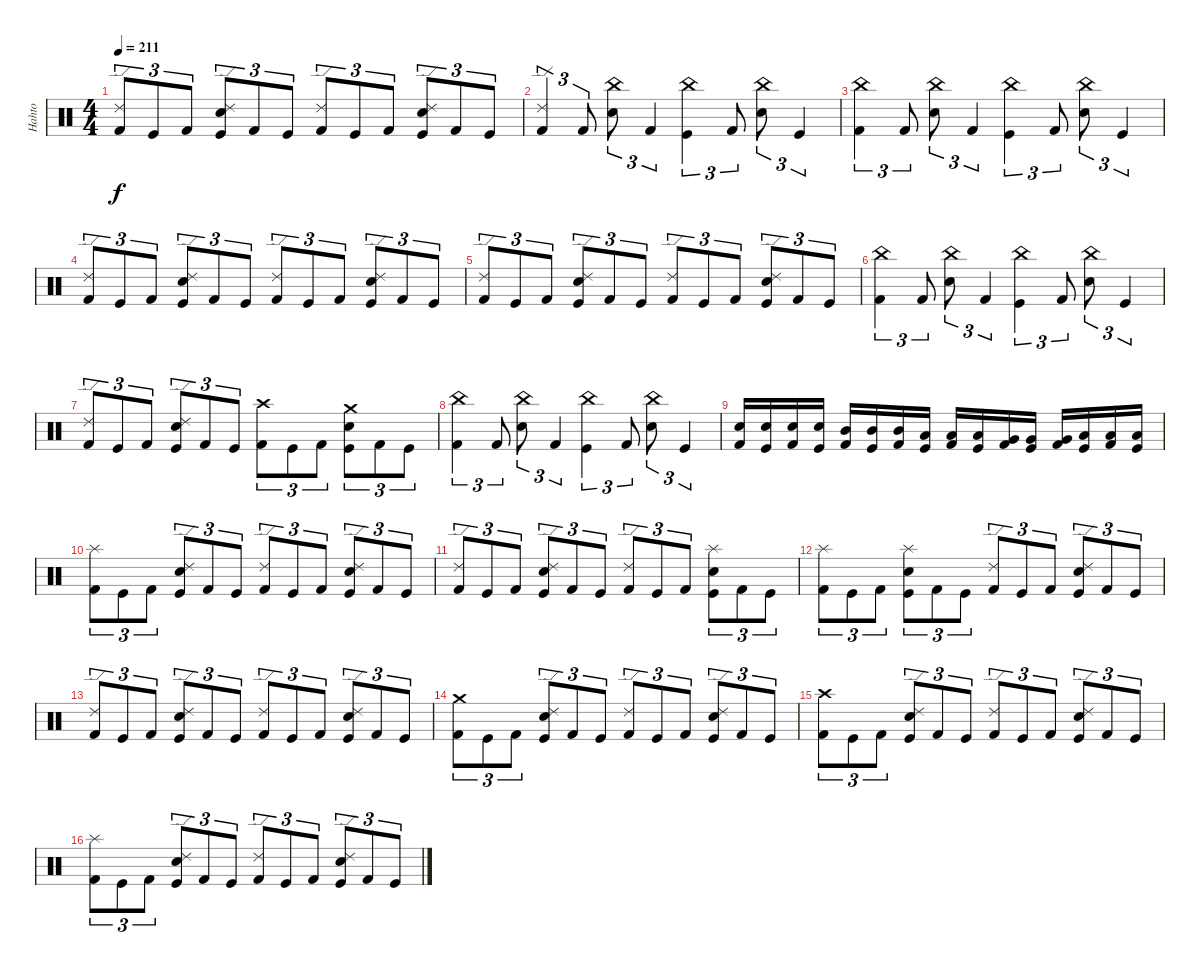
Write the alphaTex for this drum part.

\track ("Hahto" "Hahto") {instrument percussion}
\staff {score}
\articulation defaults
\ts (4 4)
\tempo 211
\clef neutral
\ks c
("Ride (edge) 2" "Kick (hit) 2").8{tu (3 2) dy f} "Kick (hit)".8{tu (3 2)} "Kick (hit) 2".8{tu (3 2)} ("Ride (edge) 2" "Snare (hit) 2" "Kick (hit)").8{tu (3 2)} "Kick (hit) 2".8{tu (3 2)} "Kick (hit)".8{tu (3 2)} ("Ride (edge) 2" "Kick (hit) 2").8{tu (3 2)} "Kick (hit)".8{tu (3 2)} "Kick (hit) 2".8{tu (3 2)} ("Ride (edge) 2" "Snare (hit) 2" "Kick (hit)").8{tu (3 2)} "Kick (hit) 2".8{tu (3 2)} "Kick (hit)".8{tu (3 2)} |
("Ride (edge) 2" "Kick (hit) 2").4{tu (3 2)} "Kick (hit) 2".8{tu (3 2)} ("China (hit)" "Snare (hit) 2").8{tu (3 2)} "Kick (hit) 2".4{tu (3 2)} ("China (hit)" "Kick (hit)").4{tu (3 2)} "Kick (hit) 2".8{tu (3 2)} ("China (hit)" "Snare (hit) 2").8{tu (3 2)} "Kick (hit)".4{tu (3 2)} |
("China (hit)" "Kick (hit) 2").4{tu (3 2)} "Kick (hit) 2".8{tu (3 2)} ("China (hit)" "Snare (hit) 2").8{tu (3 2)} "Kick (hit) 2".4{tu (3 2)} ("China (hit)" "Kick (hit)").4{tu (3 2)} "Kick (hit) 2".8{tu (3 2)} ("China (hit)" "Snare (hit) 2").8{tu (3 2)} "Kick (hit)".4{tu (3 2)} |
("Ride (edge) 2" "Kick (hit) 2").8{tu (3 2)} "Kick (hit)".8{tu (3 2)} "Kick (hit) 2".8{tu (3 2)} ("Ride (edge) 2" "Snare (hit) 2" "Kick (hit)").8{tu (3 2)} "Kick (hit) 2".8{tu (3 2)} "Kick (hit)".8{tu (3 2)} ("Ride (edge) 2" "Kick (hit) 2").8{tu (3 2)} "Kick (hit)".8{tu (3 2)} "Kick (hit) 2".8{tu (3 2)} ("Ride (edge) 2" "Snare (hit) 2" "Kick (hit)").8{tu (3 2)} "Kick (hit) 2".8{tu (3 2)} "Kick (hit)".8{tu (3 2)} |
("Ride (edge) 2" "Kick (hit) 2").8{tu (3 2)} "Kick (hit)".8{tu (3 2)} "Kick (hit) 2".8{tu (3 2)} ("Ride (edge) 2" "Snare (hit) 2" "Kick (hit)").8{tu (3 2)} "Kick (hit) 2".8{tu (3 2)} "Kick (hit)".8{tu (3 2)} ("Ride (edge) 2" "Kick (hit) 2").8{tu (3 2)} "Kick (hit)".8{tu (3 2)} "Kick (hit) 2".8{tu (3 2)} ("Ride (edge) 2" "Snare (hit) 2" "Kick (hit)").8{tu (3 2)} "Kick (hit) 2".8{tu (3 2)} "Kick (hit)".8{tu (3 2)} |
("China (hit)" "Kick (hit) 2").4{tu (3 2)} "Kick (hit) 2".8{tu (3 2)} ("China (hit)" "Snare (hit) 2").8{tu (3 2)} "Kick (hit) 2".4{tu (3 2)} ("China (hit)" "Kick (hit)").4{tu (3 2)} "Kick (hit) 2".8{tu (3 2)} ("China (hit)" "Snare (hit) 2").8{tu (3 2)} "Kick (hit)".4{tu (3 2)} |
("Ride (edge) 2" "Kick (hit) 2").8{tu (3 2)} "Kick (hit)".8{tu (3 2)} "Kick (hit) 2".8{tu (3 2)} ("Ride (edge) 2" "Snare (hit) 2" "Kick (hit)").8{tu (3 2)} "Kick (hit) 2".8{tu (3 2)} "Kick (hit)".8{tu (3 2)} ("Crash high (hit)" "Kick (hit) 2").8{tu (3 2)} "Kick (hit)".8{tu (3 2)} "Kick (hit) 2".8{tu (3 2)} ("Crash medium (hit)" "Snare (hit) 2" "Kick (hit)").8{tu (3 2)} "Kick (hit) 2".8{tu (3 2)} "Kick (hit)".8{tu (3 2)} |
("China (hit)" "Kick (hit) 2").4{tu (3 2)} "Kick (hit) 2".8{tu (3 2)} ("China (hit)" "Snare (hit) 2").8{tu (3 2)} "Kick (hit) 2".4{tu (3 2)} ("China (hit)" "Kick (hit)").4{tu (3 2)} "Kick (hit) 2".8{tu (3 2)} ("China (hit)" "Snare (hit) 2").8{tu (3 2)} "Kick (hit)".4{tu (3 2)} |
("Snare (hit) 2" "Kick (hit) 2").16 ("Snare (hit) 2" "Kick (hit)").16 ("Snare (hit) 2" "Kick (hit) 2").16 ("Snare (hit) 2" "Kick (hit)").16 ("Mid Tom (hit)" "Kick (hit) 2").16 ("Mid Tom (hit)" "Kick (hit)").16 ("Mid Tom (hit)" "Kick (hit) 2").16 ("Low Tom (hit)" "Kick (hit)").16 ("Low Tom (hit)" "Kick (hit) 2").16 ("Low Tom (hit)" "Kick (hit)").16 ("Very Low Tom (hit)" "Kick (hit) 2").16 ("Very Low Tom (hit)" "Kick (hit)").16 ("Very Low Tom (hit)" "Kick (hit) 2").16 ("Low Floor Tom (hit)" "Kick (hit)").16 ("Low Floor Tom (hit)" "Kick (hit) 2").16 ("Low Floor Tom (hit)" "Kick (hit)").16 |
("Splash (hit)" "Kick (hit) 2").8{tu (3 2)} "Kick (hit)".8{tu (3 2)} "Kick (hit) 2".8{tu (3 2)} ("Ride (edge) 2" "Snare (hit) 2" "Kick (hit)").8{tu (3 2)} "Kick (hit) 2".8{tu (3 2)} "Kick (hit)".8{tu (3 2)} ("Ride (edge) 2" "Kick (hit) 2").8{tu (3 2)} "Kick (hit)".8{tu (3 2)} "Kick (hit) 2".8{tu (3 2)} ("Ride (edge) 2" "Snare (hit) 2" "Kick (hit)").8{tu (3 2)} "Kick (hit) 2".8{tu (3 2)} "Kick (hit)".8{tu (3 2)} |
("Ride (edge) 2" "Kick (hit) 2").8{tu (3 2)} "Kick (hit)".8{tu (3 2)} "Kick (hit) 2".8{tu (3 2)} ("Ride (edge) 2" "Snare (hit) 2" "Kick (hit)").8{tu (3 2)} "Kick (hit) 2".8{tu (3 2)} "Kick (hit)".8{tu (3 2)} ("Ride (edge) 2" "Kick (hit) 2").8{tu (3 2)} "Kick (hit)".8{tu (3 2)} "Kick (hit) 2".8{tu (3 2)} ("Splash (hit)" "Snare (hit) 2" "Kick (hit)").8{tu (3 2)} "Kick (hit) 2".8{tu (3 2)} "Kick (hit)".8{tu (3 2)} |
("Splash (hit)" "Kick (hit) 2").8{tu (3 2)} "Kick (hit)".8{tu (3 2)} "Kick (hit) 2".8{tu (3 2)} ("Splash (hit)" "Snare (hit) 2" "Kick (hit)").8{tu (3 2)} "Kick (hit) 2".8{tu (3 2)} "Kick (hit)".8{tu (3 2)} ("Ride (edge) 2" "Kick (hit) 2").8{tu (3 2)} "Kick (hit)".8{tu (3 2)} "Kick (hit) 2".8{tu (3 2)} ("Ride (edge) 2" "Snare (hit) 2" "Kick (hit)").8{tu (3 2)} "Kick (hit) 2".8{tu (3 2)} "Kick (hit)".8{tu (3 2)} |
("Ride (edge) 2" "Kick (hit) 2").8{tu (3 2)} "Kick (hit)".8{tu (3 2)} "Kick (hit) 2".8{tu (3 2)} ("Ride (edge) 2" "Snare (hit) 2" "Kick (hit)").8{tu (3 2)} "Kick (hit) 2".8{tu (3 2)} "Kick (hit)".8{tu (3 2)} ("Ride (edge) 2" "Kick (hit) 2").8{tu (3 2)} "Kick (hit)".8{tu (3 2)} "Kick (hit) 2".8{tu (3 2)} ("Ride (edge) 2" "Snare (hit) 2" "Kick (hit)").8{tu (3 2)} "Kick (hit) 2".8{tu (3 2)} "Kick (hit)".8{tu (3 2)} |
("Crash medium (hit)" "Kick (hit) 2").8{tu (3 2)} "Kick (hit)".8{tu (3 2)} "Kick (hit) 2".8{tu (3 2)} ("Ride (edge) 2" "Snare (hit) 2" "Kick (hit)").8{tu (3 2)} "Kick (hit) 2".8{tu (3 2)} "Kick (hit)".8{tu (3 2)} ("Ride (edge) 2" "Kick (hit) 2").8{tu (3 2)} "Kick (hit)".8{tu (3 2)} "Kick (hit) 2".8{tu (3 2)} ("Ride (edge) 2" "Snare (hit) 2" "Kick (hit)").8{tu (3 2)} "Kick (hit) 2".8{tu (3 2)} "Kick (hit)".8{tu (3 2)} |
("Crash high (hit)" "Kick (hit) 2").8{tu (3 2)} "Kick (hit)".8{tu (3 2)} "Kick (hit) 2".8{tu (3 2)} ("Ride (edge) 2" "Snare (hit) 2" "Kick (hit)").8{tu (3 2)} "Kick (hit) 2".8{tu (3 2)} "Kick (hit)".8{tu (3 2)} ("Ride (edge) 2" "Kick (hit) 2").8{tu (3 2)} "Kick (hit)".8{tu (3 2)} "Kick (hit) 2".8{tu (3 2)} ("Ride (edge) 2" "Snare (hit) 2" "Kick (hit)").8{tu (3 2)} "Kick (hit) 2".8{tu (3 2)} "Kick (hit)".8{tu (3 2)} |
("Splash (hit)" "Kick (hit) 2").8{tu (3 2)} "Kick (hit)".8{tu (3 2)} "Kick (hit) 2".8{tu (3 2)} ("Ride (edge) 2" "Snare (hit) 2" "Kick (hit)").8{tu (3 2)} "Kick (hit) 2".8{tu (3 2)} "Kick (hit)".8{tu (3 2)} ("Ride (edge) 2" "Kick (hit) 2").8{tu (3 2)} "Kick (hit)".8{tu (3 2)} "Kick (hit) 2".8{tu (3 2)} ("Ride (edge) 2" "Snare (hit) 2" "Kick (hit)").8{tu (3 2)} "Kick (hit) 2".8{tu (3 2)} "Kick (hit)".8{tu (3 2)}
